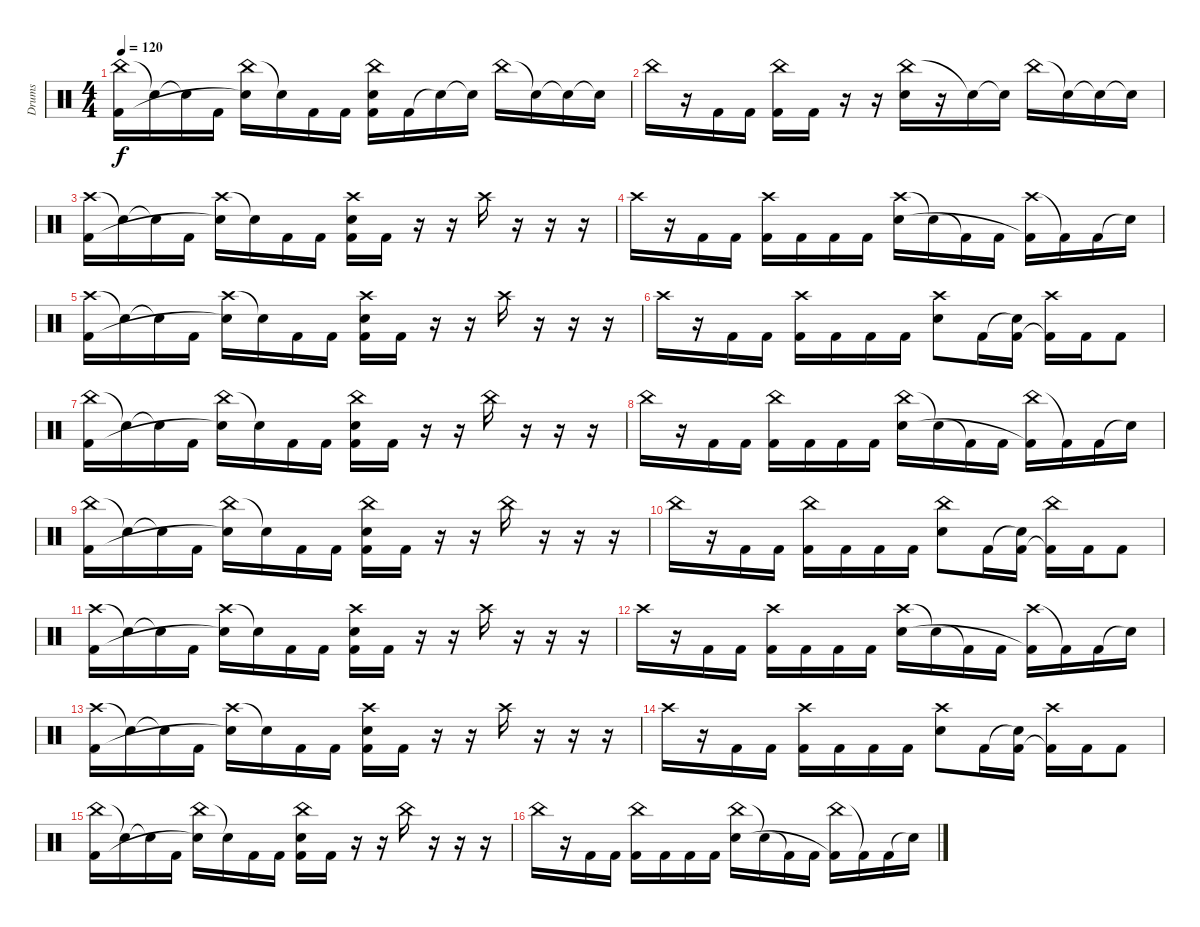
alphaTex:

\track ("Drums" "Drums") {instrument percussion}
\staff {score}
\articulation defaults
\ts (4 4)
\tempo 120
\clef neutral
\ks c
("China (hit)" "Kick (hit) 2").16{dy f} "Snare (hit)"{t}.16 "Snare (hit)"{t}.16 "Kick (hit) 2".16 ("China (hit)" "Snare (hit)"{t}).16 "Snare (hit)"{t}.16 "Kick (hit) 2".16 "Kick (hit) 2".16 ("Electric Snare (hit)" "China (hit)" "Kick (hit) 2").16 "Kick (hit) 2".16 "Snare (hit)"{t}.16 "Snare (hit)"{t}.16 "China (hit)".16 "Snare (hit)"{t}.16 "Snare (hit)"{t}.16 "Snare (hit)"{t}.16 |
"China (hit)".16 r.16 "Kick (hit) 2".16 "Kick (hit) 2".16 ("China (hit)" "Kick (hit) 2").16 "Kick (hit) 2".16 r.16 r.16 ("China (hit)" "Electric Snare (hit)").16 r.16 "Snare (hit)"{t}.16 "Snare (hit)"{t}.16 "China (hit)".16 "Snare (hit)"{t}.16 "Snare (hit)"{t}.16 "Snare (hit)"{t}.16 |
("Crash high (hit)" "Kick (hit) 2").16 "Snare (hit)"{t}.16 "Snare (hit)"{t}.16 "Kick (hit) 2".16 ("Crash high (hit)" "Snare (hit)"{t}).16 "Snare (hit)"{t}.16 "Kick (hit) 2".16 "Kick (hit) 2".16 ("Crash high (hit)" "Electric Snare (hit)" "Kick (hit) 2").16 "Kick (hit) 2".16 r.16 r.16 "Crash high (hit)".16 r.16 r.16 r.16 |
"Crash high (hit)".16 r.16 "Kick (hit) 2".16 "Kick (hit) 2".16 ("Crash high (hit)" "Kick (hit) 2").16 "Kick (hit) 2".16 "Kick (hit) 2".16 "Kick (hit) 2".16 ("Crash high (hit)" "Electric Snare (hit)").16 "Snare (hit)"{t}.16 "Kick (hit) 2"{t}.16 "Kick (hit) 2".16 ("Crash high (hit)" "Kick (hit) 2"{t}).16 "Kick (hit) 2"{t}.16 "Kick (hit) 2".16 "Snare (hit)"{t}.16 |
("Crash high (hit)" "Kick (hit) 2").16 "Snare (hit)"{t}.16 "Snare (hit)"{t}.16 "Kick (hit) 2".16 ("Crash high (hit)" "Snare (hit)"{t}).16 "Snare (hit)"{t}.16 "Kick (hit) 2".16 "Kick (hit) 2".16 ("Crash high (hit)" "Electric Snare (hit)" "Kick (hit) 2").16 "Kick (hit) 2".16 r.16 r.16 "Crash high (hit)".16 r.16 r.16 r.16 |
"Crash high (hit)".16 r.16 "Kick (hit) 2".16 "Kick (hit) 2".16 ("Crash high (hit)" "Kick (hit) 2").16 "Kick (hit) 2".16 "Kick (hit) 2".16 "Kick (hit) 2".16 ("Crash high (hit)" "Electric Snare (hit)").8 "Kick (hit) 2".16 ("Snare (hit)"{t} "Kick (hit) 2").16 ("Crash high (hit)" "Kick (hit) 2"{t}).16 "Kick (hit) 2".16 "Kick (hit) 2".8 |
("China (hit)" "Kick (hit) 2").16 "Snare (hit)"{t}.16 "Snare (hit)"{t}.16 "Kick (hit) 2".16 ("China (hit)" "Snare (hit)"{t}).16 "Snare (hit)"{t}.16 "Kick (hit) 2".16 "Kick (hit) 2".16 ("China (hit)" "Electric Snare (hit)" "Kick (hit) 2").16 "Kick (hit) 2".16 r.16 r.16 "China (hit)".16 r.16 r.16 r.16 |
"China (hit)".16 r.16 "Kick (hit) 2".16 "Kick (hit) 2".16 ("China (hit)" "Kick (hit) 2").16 "Kick (hit) 2".16 "Kick (hit) 2".16 "Kick (hit) 2".16 ("China (hit)" "Electric Snare (hit)").16 "Snare (hit)"{t}.16 "Kick (hit) 2"{t}.16 "Kick (hit) 2".16 ("China (hit)" "Kick (hit) 2"{t}).16 "Kick (hit) 2"{t}.16 "Kick (hit) 2".16 "Snare (hit)"{t}.16 |
("China (hit)" "Kick (hit) 2").16 "Snare (hit)"{t}.16 "Snare (hit)"{t}.16 "Kick (hit) 2".16 ("China (hit)" "Snare (hit)"{t}).16 "Snare (hit)"{t}.16 "Kick (hit) 2".16 "Kick (hit) 2".16 ("China (hit)" "Electric Snare (hit)" "Kick (hit) 2").16 "Kick (hit) 2".16 r.16 r.16 "China (hit)".16 r.16 r.16 r.16 |
"China (hit)".16 r.16 "Kick (hit) 2".16 "Kick (hit) 2".16 ("China (hit)" "Kick (hit) 2").16 "Kick (hit) 2".16 "Kick (hit) 2".16 "Kick (hit) 2".16 ("China (hit)" "Electric Snare (hit)").8 "Kick (hit) 2".16 ("Snare (hit)"{t} "Kick (hit) 2").16 ("China (hit)" "Kick (hit) 2"{t}).16 "Kick (hit) 2".16 "Kick (hit) 2".8 |
("Crash high (hit)" "Kick (hit) 2").16 "Snare (hit)"{t}.16 "Snare (hit)"{t}.16 "Kick (hit) 2".16 ("Crash high (hit)" "Snare (hit)"{t}).16 "Snare (hit)"{t}.16 "Kick (hit) 2".16 "Kick (hit) 2".16 ("Crash high (hit)" "Electric Snare (hit)" "Kick (hit) 2").16 "Kick (hit) 2".16 r.16 r.16 "Crash high (hit)".16 r.16 r.16 r.16 |
"Crash high (hit)".16 r.16 "Kick (hit) 2".16 "Kick (hit) 2".16 ("Crash high (hit)" "Kick (hit) 2").16 "Kick (hit) 2".16 "Kick (hit) 2".16 "Kick (hit) 2".16 ("Crash high (hit)" "Electric Snare (hit)").16 "Snare (hit)"{t}.16 "Kick (hit) 2"{t}.16 "Kick (hit) 2".16 ("Crash high (hit)" "Kick (hit) 2"{t}).16 "Kick (hit) 2"{t}.16 "Kick (hit) 2".16 "Snare (hit)"{t}.16 |
("Crash high (hit)" "Kick (hit) 2").16 "Snare (hit)"{t}.16 "Snare (hit)"{t}.16 "Kick (hit) 2".16 ("Crash high (hit)" "Snare (hit)"{t}).16 "Snare (hit)"{t}.16 "Kick (hit) 2".16 "Kick (hit) 2".16 ("Crash high (hit)" "Electric Snare (hit)" "Kick (hit) 2").16 "Kick (hit) 2".16 r.16 r.16 "Crash high (hit)".16 r.16 r.16 r.16 |
"Crash high (hit)".16 r.16 "Kick (hit) 2".16 "Kick (hit) 2".16 ("Crash high (hit)" "Kick (hit) 2").16 "Kick (hit) 2".16 "Kick (hit) 2".16 "Kick (hit) 2".16 ("Crash high (hit)" "Electric Snare (hit)").8 "Kick (hit) 2".16 ("Snare (hit)"{t} "Kick (hit) 2").16 ("Crash high (hit)" "Kick (hit) 2"{t}).16 "Kick (hit) 2".16 "Kick (hit) 2".8 |
("China (hit)" "Kick (hit) 2").16 "Snare (hit)"{t}.16 "Snare (hit)"{t}.16 "Kick (hit) 2".16 ("China (hit)" "Snare (hit)"{t}).16 "Snare (hit)"{t}.16 "Kick (hit) 2".16 "Kick (hit) 2".16 ("China (hit)" "Electric Snare (hit)" "Kick (hit) 2").16 "Kick (hit) 2".16 r.16 r.16 "China (hit)".16 r.16 r.16 r.16 |
"China (hit)".16 r.16 "Kick (hit) 2".16 "Kick (hit) 2".16 ("China (hit)" "Kick (hit) 2").16 "Kick (hit) 2".16 "Kick (hit) 2".16 "Kick (hit) 2".16 ("China (hit)" "Electric Snare (hit)").16 "Snare (hit)"{t}.16 "Kick (hit) 2"{t}.16 "Kick (hit) 2".16 ("China (hit)" "Kick (hit) 2"{t}).16 "Kick (hit) 2"{t}.16 "Kick (hit) 2".16 "Snare (hit)"{t}.16
